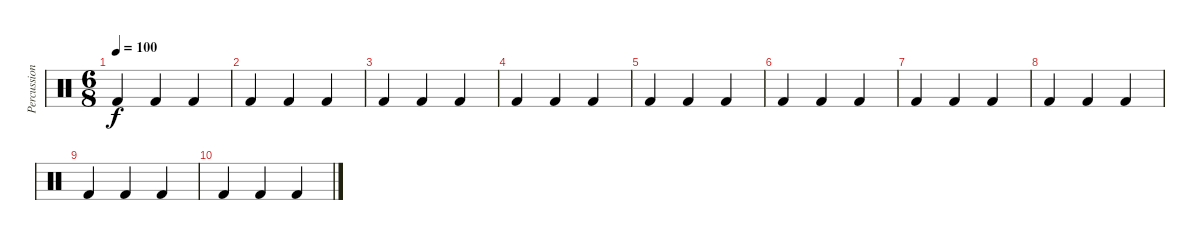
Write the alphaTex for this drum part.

\track ("Percussion" "Percussion") {instrument percussion}
\staff {score}
\articulation defaults
\ts (6 8)
\tempo 100
\clef neutral
\ks c "Kick (hit) 2".4{dy f} "Kick (hit) 2".4 "Kick (hit) 2".4
|
"Kick (hit) 2".4 "Kick (hit) 2".4 "Kick (hit) 2".4 |
"Kick (hit) 2".4 "Kick (hit) 2".4 "Kick (hit) 2".4 |
"Kick (hit) 2".4 "Kick (hit) 2".4 "Kick (hit) 2".4 |
"Kick (hit) 2".4 "Kick (hit) 2".4 "Kick (hit) 2".4 |
"Kick (hit) 2".4 "Kick (hit) 2".4 "Kick (hit) 2".4 |
"Kick (hit) 2".4 "Kick (hit) 2".4 "Kick (hit) 2".4 |
"Kick (hit) 2".4 "Kick (hit) 2".4 "Kick (hit) 2".4 |
"Kick (hit) 2".4 "Kick (hit) 2".4 "Kick (hit) 2".4 |
"Kick (hit) 2".4 "Kick (hit) 2".4 "Kick (hit) 2".4
